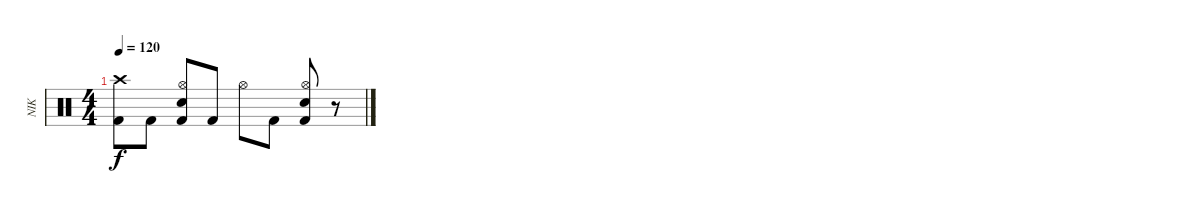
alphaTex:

\track ("NIK" "NIK") {instrument percussion}
\staff {score}
\articulation defaults
\ts (4 4)
\tempo 120
\clef neutral
\ks c
("Crash high (hit)" "Kick (hit) 2").8{dy f} "Kick (hit) 2".8 ("Kick (hit) 2" "Hi-Hat (open)" "Snare (hit) 2").8 "Kick (hit) 2".8 "Hi-Hat (open)".8 "Kick (hit) 2".8 ("Kick (hit) 2" "Hi-Hat (open)" "Snare (hit) 2").8 r.8
